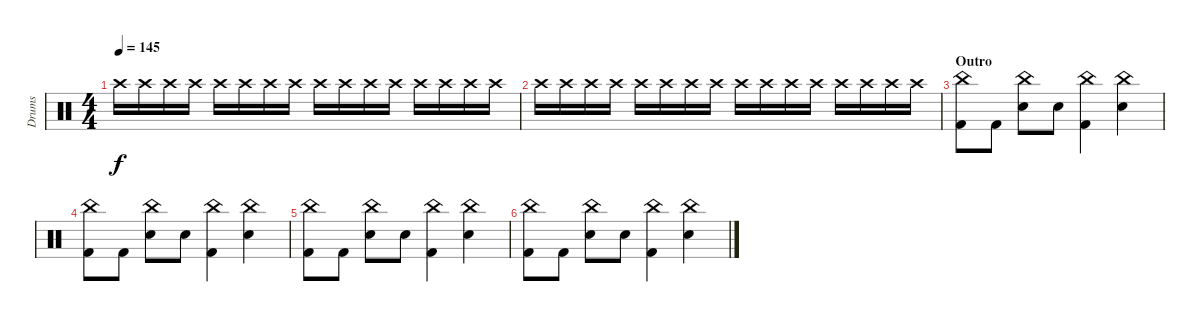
\track ("Drums" "Drums") {instrument percussion}
\staff {score}
\articulation defaults
\ts (4 4)
\tempo 145
\clef neutral
\ks c "Crash high (hit)".16{dy f volume 16} "Crash high (hit)".16 "Crash high (hit)".16 "Crash high (hit)".16 "Crash high (hit)".16 "Crash high (hit)".16 "Crash high (hit)".16 "Crash high (hit)".16 "Crash high (hit)".16 "Crash high (hit)".16 "Crash high (hit)".16 "Crash high (hit)".16 "Crash high (hit)".16 "Crash high (hit)".16 "Crash high (hit)".16 "Crash high (hit)".16
|
"Crash high (hit)".16 "Crash high (hit)".16 "Crash high (hit)".16 "Crash high (hit)".16 "Crash high (hit)".16 "Crash high (hit)".16 "Crash high (hit)".16 "Crash high (hit)".16 "Crash high (hit)".16 "Crash high (hit)".16 "Crash high (hit)".16 "Crash high (hit)".16 "Crash high (hit)".16 "Crash high (hit)".16 "Crash high (hit)".16 "Crash high (hit)".16 |
\section ("" "Outro")
("China (hit)" "Kick (hit) 2").8 "Kick (hit) 2".8 ("China (hit)" "Electric Snare (hit)").8 "Electric Snare (hit)".8 ("China (hit)" "Kick (hit) 2").4 ("China (hit)" "Electric Snare (hit)").4 |
("China (hit)" "Kick (hit) 2").8 "Kick (hit) 2".8 ("China (hit)" "Electric Snare (hit)").8 "Electric Snare (hit)".8 ("China (hit)" "Kick (hit) 2").4 ("China (hit)" "Electric Snare (hit)").4 |
("China (hit)" "Kick (hit) 2").8 "Kick (hit) 2".8 ("China (hit)" "Electric Snare (hit)").8 "Electric Snare (hit)".8 ("China (hit)" "Kick (hit) 2").4 ("China (hit)" "Electric Snare (hit)").4 |
("China (hit)" "Kick (hit) 2").8 "Kick (hit) 2".8 ("China (hit)" "Electric Snare (hit)").8 "Electric Snare (hit)".8 ("China (hit)" "Kick (hit) 2").4 ("China (hit)" "Electric Snare (hit)").4
